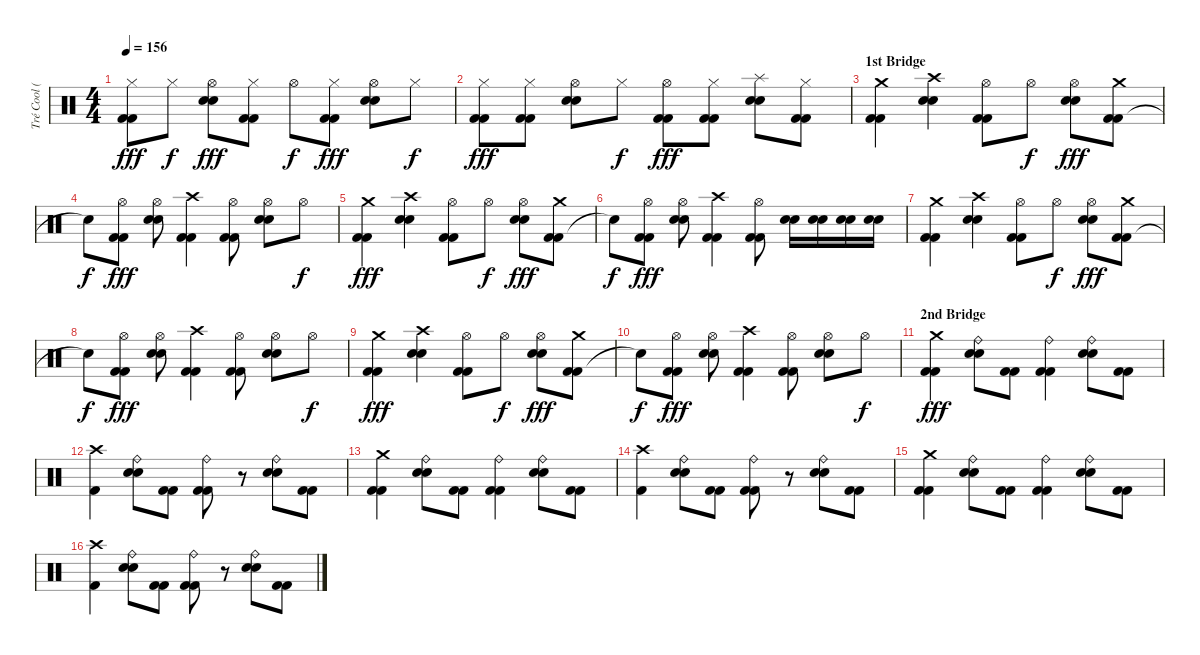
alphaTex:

\track ("Tré Cool (Drums)" "Tré Cool (") {instrument percussion}
\staff {score}
\articulation defaults
\ts (4 4)
\tempo 156
\clef neutral
\ks c
("Kick (hit) 2" "Kick (hit) 2" "Hi-Hat (closed)").8{dy fff} "Hi-Hat (closed)".8{dy f} ("Electric Snare (hit)" "Electric Snare (hit)" "Hi-Hat (open)").8{dy fff} ("Kick (hit) 2" "Kick (hit) 2" "Hi-Hat (closed)").8 "Hi-Hat (open)".8{dy f} ("Kick (hit) 2" "Kick (hit) 2" "Hi-Hat (closed)").8{dy fff} ("Electric Snare (hit)" "Electric Snare (hit)" "Hi-Hat (open)").8 "Hi-Hat (closed)".8{dy f} |
("Kick (hit) 2" "Kick (hit) 2" "Hi-Hat (closed)").8{dy fff} ("Kick (hit) 2" "Kick (hit) 2" "Hi-Hat (closed)").8 ("Electric Snare (hit)" "Electric Snare (hit)" "Hi-Hat (open)").8 "Hi-Hat (closed)".8{dy f} ("Kick (hit) 2" "Kick (hit) 2" "Hi-Hat (open)").8{dy fff} ("Kick (hit) 2" "Kick (hit) 2" "Hi-Hat (closed)").8 ("Electric Snare (hit)" "Electric Snare (hit)" "Splash (hit)").8 ("Kick (hit) 2" "Kick (hit) 2" "Hi-Hat (closed)").8 |
\section ("" "1st Bridge")
("Kick (hit) 2" "Kick (hit) 2" "Crash medium (hit)").4 ("Electric Snare (hit)" "Electric Snare (hit)" "Crash high (hit)").4 ("Kick (hit) 2" "Kick (hit) 2" "Hi-Hat (open)").8 "Hi-Hat (open)".8{dy f} ("Electric Snare (hit)" "Electric Snare (hit)" "Hi-Hat (open)").8{dy fff} ("Kick (hit) 2" "Kick (hit) 2" "Crash medium (hit)").8 |
"Snare (hit)"{t}.8{dy f} ("Kick (hit) 2" "Kick (hit) 2" "Hi-Hat (open)").8{dy fff} ("Electric Snare (hit)" "Electric Snare (hit)" "Hi-Hat (open)").8 ("Kick (hit) 2" "Kick (hit) 2" "Crash high (hit)").4 ("Kick (hit) 2" "Kick (hit) 2" "Hi-Hat (open)").8 ("Electric Snare (hit)" "Electric Snare (hit)" "Hi-Hat (open)").8 "Hi-Hat (open)".8{dy f} |
("Kick (hit) 2" "Kick (hit) 2" "Crash medium (hit)").4{dy fff} ("Electric Snare (hit)" "Electric Snare (hit)" "Crash high (hit)").4 ("Kick (hit) 2" "Kick (hit) 2" "Hi-Hat (open)").8 "Hi-Hat (open)".8{dy f} ("Electric Snare (hit)" "Electric Snare (hit)" "Hi-Hat (open)").8{dy fff} ("Kick (hit) 2" "Kick (hit) 2" "Crash medium (hit)").8 |
"Snare (hit)"{t}.8{dy f} ("Kick (hit) 2" "Kick (hit) 2" "Hi-Hat (open)").8{dy fff} ("Electric Snare (hit)" "Electric Snare (hit)" "Hi-Hat (open)").8 ("Kick (hit) 2" "Kick (hit) 2" "Crash high (hit)").4 ("Kick (hit) 2" "Kick (hit) 2" "Hi-Hat (open)").8 ("Electric Snare (hit)" "Electric Snare (hit)").16 ("Electric Snare (hit)" "Electric Snare (hit)").16 ("Electric Snare (hit)" "Electric Snare (hit)").16 ("Electric Snare (hit)" "Electric Snare (hit)").16 |
("Kick (hit) 2" "Kick (hit) 2" "Crash medium (hit)").4 ("Electric Snare (hit)" "Electric Snare (hit)" "Crash high (hit)").4 ("Kick (hit) 2" "Kick (hit) 2" "Hi-Hat (open)").8 "Hi-Hat (open)".8{dy f} ("Electric Snare (hit)" "Electric Snare (hit)" "Hi-Hat (open)").8{dy fff} ("Kick (hit) 2" "Kick (hit) 2" "Crash medium (hit)").8 |
"Snare (hit)"{t}.8{dy f} ("Kick (hit) 2" "Kick (hit) 2" "Hi-Hat (open)").8{dy fff} ("Electric Snare (hit)" "Electric Snare (hit)" "Hi-Hat (open)").8 ("Kick (hit) 2" "Kick (hit) 2" "Crash high (hit)").4 ("Kick (hit) 2" "Kick (hit) 2" "Hi-Hat (open)").8 ("Electric Snare (hit)" "Electric Snare (hit)" "Hi-Hat (open)").8 "Hi-Hat (open)".8{dy f} |
("Kick (hit) 2" "Kick (hit) 2" "Crash medium (hit)").4{dy fff} ("Electric Snare (hit)" "Electric Snare (hit)" "Crash high (hit)").4 ("Kick (hit) 2" "Kick (hit) 2" "Hi-Hat (open)").8 "Hi-Hat (open)".8{dy f} ("Electric Snare (hit)" "Electric Snare (hit)" "Hi-Hat (open)").8{dy fff} ("Kick (hit) 2" "Kick (hit) 2" "Crash medium (hit)").8 |
"Snare (hit)"{t}.8{dy f} ("Kick (hit) 2" "Kick (hit) 2" "Hi-Hat (open)").8{dy fff} ("Electric Snare (hit)" "Electric Snare (hit)" "Hi-Hat (open)").8 ("Kick (hit) 2" "Kick (hit) 2" "Crash high (hit)").4 ("Kick (hit) 2" "Kick (hit) 2" "Hi-Hat (open)").8 ("Electric Snare (hit)" "Electric Snare (hit)" "Hi-Hat (open)").8 "Hi-Hat (open)".8{dy f} |
\section ("" "2nd Bridge")
("Kick (hit) 2" "Kick (hit) 2" "Crash medium (hit)").4{dy fff} ("Electric Snare (hit)" "Electric Snare (hit)" "Ride (bell)").8 ("Kick (hit) 2" "Kick (hit) 2").8 ("Kick (hit) 2" "Kick (hit) 2" "Ride (bell)").4 ("Electric Snare (hit)" "Electric Snare (hit)" "Ride (bell)").8 ("Kick (hit) 2" "Kick (hit) 2").8 |
("Kick (hit) 2" "Crash high (hit)").4 ("Electric Snare (hit)" "Electric Snare (hit)" "Ride (bell)").8 ("Kick (hit) 2" "Kick (hit) 2").8 ("Kick (hit) 2" "Kick (hit) 2" "Ride (bell)").8 r.8 ("Electric Snare (hit)" "Electric Snare (hit)" "Ride (bell)").8 ("Kick (hit) 2" "Kick (hit) 2").8 |
("Kick (hit) 2" "Kick (hit) 2" "Crash medium (hit)").4 ("Electric Snare (hit)" "Electric Snare (hit)" "Ride (bell)").8 ("Kick (hit) 2" "Kick (hit) 2").8 ("Kick (hit) 2" "Kick (hit) 2" "Ride (bell)").4 ("Electric Snare (hit)" "Electric Snare (hit)" "Ride (bell)").8 ("Kick (hit) 2" "Kick (hit) 2").8 |
("Kick (hit) 2" "Crash high (hit)").4 ("Electric Snare (hit)" "Electric Snare (hit)" "Ride (bell)").8 ("Kick (hit) 2" "Kick (hit) 2").8 ("Kick (hit) 2" "Kick (hit) 2" "Ride (bell)").8 r.8 ("Electric Snare (hit)" "Electric Snare (hit)" "Ride (bell)").8 ("Kick (hit) 2" "Kick (hit) 2").8 |
("Kick (hit) 2" "Kick (hit) 2" "Crash medium (hit)").4 ("Electric Snare (hit)" "Electric Snare (hit)" "Ride (bell)").8 ("Kick (hit) 2" "Kick (hit) 2").8 ("Kick (hit) 2" "Kick (hit) 2" "Ride (bell)").4 ("Electric Snare (hit)" "Electric Snare (hit)" "Ride (bell)").8 ("Kick (hit) 2" "Kick (hit) 2").8 |
("Kick (hit) 2" "Crash high (hit)").4 ("Electric Snare (hit)" "Electric Snare (hit)" "Ride (bell)").8 ("Kick (hit) 2" "Kick (hit) 2").8 ("Kick (hit) 2" "Kick (hit) 2" "Ride (bell)").8 r.8 ("Electric Snare (hit)" "Electric Snare (hit)" "Ride (bell)").8 ("Kick (hit) 2" "Kick (hit) 2").8
